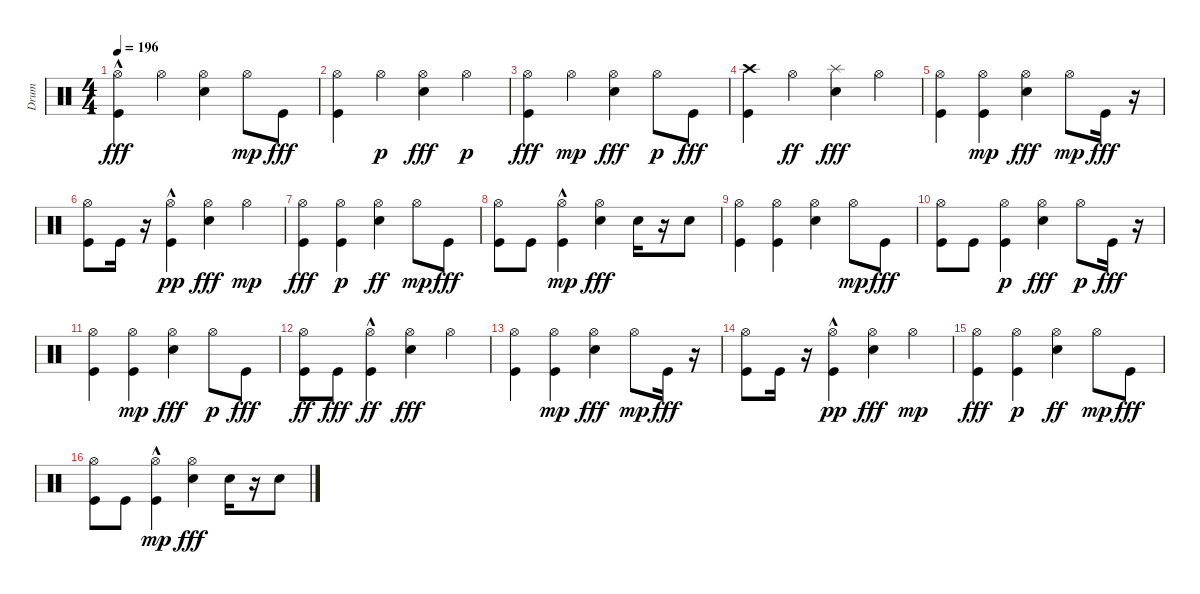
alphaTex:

\track ("Drum" "Drum") {instrument percussion}
\staff {score}
\articulation defaults
\ts (4 4)
\tempo 196
\clef neutral
\ks c
("Kick (hit)"{hac} "Hi-Hat (open)").4{dy fff} "Hi-Hat (open)".4 ("Hi-Hat (open)" "Snare (hit) 2").4 "Hi-Hat (open)".8{dy mp} "Kick (hit)".8{dy fff} |
("Kick (hit)" "Hi-Hat (open)").4 "Hi-Hat (open)".4{dy p} ("Snare (hit) 2" "Hi-Hat (open)").4{dy fff} "Hi-Hat (open)".4{dy p} |
("Kick (hit)" "Hi-Hat (open)").4{dy fff} "Hi-Hat (open)".4{dy mp} ("Hi-Hat (open)" "Snare (hit) 2").4{dy fff} "Hi-Hat (open)".8{dy p} "Kick (hit)".8{dy fff} |
("Crash high (hit)" "Kick (hit)").4 "Hi-Hat (open)".4{dy ff} ("Splash (hit)" "Snare (hit) 2").4{dy fff} "Hi-Hat (open)".4 |
("Kick (hit)" "Hi-Hat (open)").4 ("Kick (hit)" "Hi-Hat (open)").4{dy mp} ("Hi-Hat (open)" "Snare (hit) 2").4{dy fff} "Hi-Hat (open)".8{dy mp} "Kick (hit)".16{dy fff} r.16 |
("Kick (hit)" "Hi-Hat (open)").8 "Kick (hit)".16 r.16 ("Kick (hit)"{hac} "Hi-Hat (open)").4{dy pp} ("Hi-Hat (open)" "Snare (hit) 2").4{dy fff} "Hi-Hat (open)".4{dy mp} |
("Kick (hit)" "Hi-Hat (open)").4{dy fff} ("Kick (hit)" "Hi-Hat (open)").4{dy p} ("Snare (hit) 2" "Hi-Hat (open)").4{dy ff} "Hi-Hat (open)".8{dy mp} "Kick (hit)".8{dy fff} |
("Kick (hit)" "Hi-Hat (open)").8 "Kick (hit)".8 ("Kick (hit)"{hac} "Hi-Hat (open)").4{dy mp} ("Hi-Hat (open)" "Snare (hit) 2").4{dy fff} "Snare (hit) 2".16 r.16 "Snare (hit) 2".8 |
("Kick (hit)" "Hi-Hat (open)").4 ("Kick (hit)" "Hi-Hat (open)").4 ("Hi-Hat (open)" "Snare (hit) 2").4 "Hi-Hat (open)".8{dy mp} "Kick (hit)".8{dy fff} |
("Kick (hit)" "Hi-Hat (open)").8 "Kick (hit)".8 ("Kick (hit)" "Hi-Hat (open)").4{dy p} ("Snare (hit) 2" "Hi-Hat (open)").4{dy fff} "Hi-Hat (open)".8{dy p} "Kick (hit)".16{dy fff} r.16 |
("Kick (hit)" "Hi-Hat (open)").4 ("Kick (hit)" "Hi-Hat (open)").4{dy mp} ("Hi-Hat (open)" "Snare (hit) 2").4{dy fff} "Hi-Hat (open)".8{dy p} "Kick (hit)".8{dy fff} |
("Kick (hit)" "Hi-Hat (open)").8{dy ff} "Kick (hit)".8{dy fff} ("Kick (hit)"{hac} "Hi-Hat (open)").4{dy ff} ("Hi-Hat (open)" "Snare (hit) 2").4{dy fff} "Hi-Hat (open)".4 |
("Kick (hit)" "Hi-Hat (open)").4 ("Kick (hit)" "Hi-Hat (open)").4{dy mp} ("Hi-Hat (open)" "Snare (hit) 2").4{dy fff} "Hi-Hat (open)".8{dy mp} "Kick (hit)".16{dy fff} r.16 |
("Kick (hit)" "Hi-Hat (open)").8 "Kick (hit)".16 r.16 ("Kick (hit)"{hac} "Hi-Hat (open)").4{dy pp} ("Hi-Hat (open)" "Snare (hit) 2").4{dy fff} "Hi-Hat (open)".4{dy mp} |
("Kick (hit)" "Hi-Hat (open)").4{dy fff} ("Kick (hit)" "Hi-Hat (open)").4{dy p} ("Snare (hit) 2" "Hi-Hat (open)").4{dy ff} "Hi-Hat (open)".8{dy mp} "Kick (hit)".8{dy fff} |
("Kick (hit)" "Hi-Hat (open)").8 "Kick (hit)".8 ("Kick (hit)"{hac} "Hi-Hat (open)").4{dy mp} ("Hi-Hat (open)" "Snare (hit) 2").4{dy fff} "Snare (hit) 2".16 r.16 "Snare (hit) 2".8
